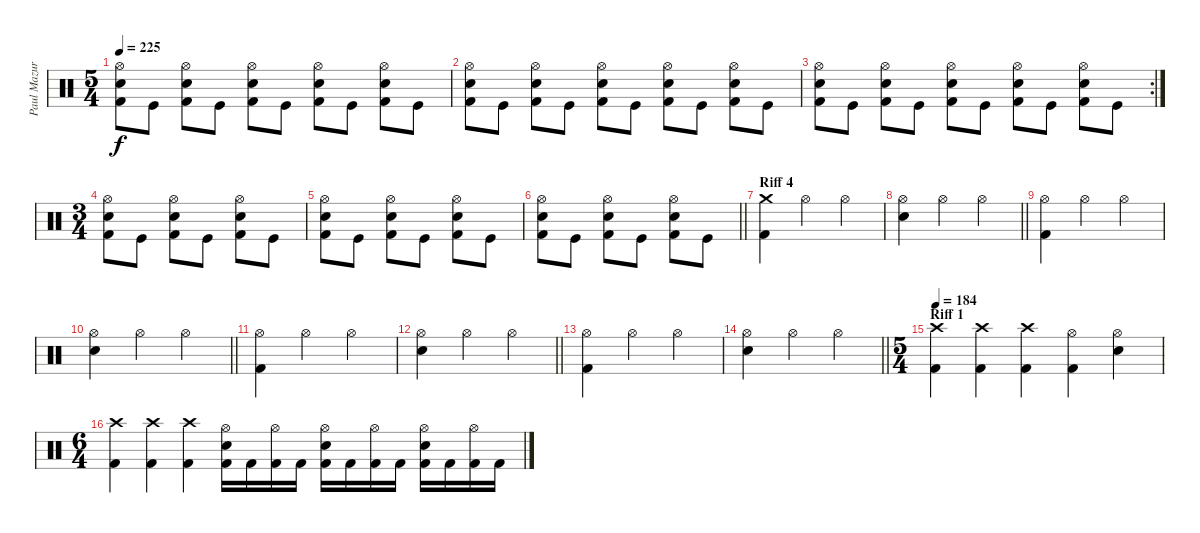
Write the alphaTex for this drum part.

\track ("Paul Mazurkiewicz" "Paul Mazur") {instrument percussion}
\staff {score}
\articulation defaults
\ts (5 4)
\tempo 225
\clef neutral
\ks c
("Hi-Hat (open)" "Electric Snare (hit)" "Kick (hit) 2").8{dy f} "Kick (hit)".8 ("Hi-Hat (open)" "Electric Snare (hit)" "Kick (hit) 2").8 "Kick (hit)".8 ("Hi-Hat (open)" "Electric Snare (hit)" "Kick (hit) 2").8 "Kick (hit)".8 ("Hi-Hat (open)" "Electric Snare (hit)" "Kick (hit) 2").8 "Kick (hit)".8 ("Hi-Hat (open)" "Electric Snare (hit)" "Kick (hit) 2").8 "Kick (hit)".8 |
("Hi-Hat (open)" "Electric Snare (hit)" "Kick (hit) 2").8 "Kick (hit)".8 ("Hi-Hat (open)" "Electric Snare (hit)" "Kick (hit) 2").8 "Kick (hit)".8 ("Hi-Hat (open)" "Electric Snare (hit)" "Kick (hit) 2").8 "Kick (hit)".8 ("Hi-Hat (open)" "Electric Snare (hit)" "Kick (hit) 2").8 "Kick (hit)".8 ("Hi-Hat (open)" "Electric Snare (hit)" "Kick (hit) 2").8 "Kick (hit)".8 |
\rc 2
("Hi-Hat (open)" "Electric Snare (hit)" "Kick (hit) 2").8 "Kick (hit)".8 ("Hi-Hat (open)" "Electric Snare (hit)" "Kick (hit) 2").8 "Kick (hit)".8 ("Hi-Hat (open)" "Electric Snare (hit)" "Kick (hit) 2").8 "Kick (hit)".8 ("Hi-Hat (open)" "Electric Snare (hit)" "Kick (hit) 2").8 "Kick (hit)".8 ("Hi-Hat (open)" "Electric Snare (hit)" "Kick (hit) 2").8 "Kick (hit)".8 |
\ts (3 4)
("Hi-Hat (open)" "Electric Snare (hit)" "Kick (hit) 2").8 "Kick (hit)".8 ("Hi-Hat (open)" "Electric Snare (hit)" "Kick (hit) 2").8 "Kick (hit)".8 ("Hi-Hat (open)" "Electric Snare (hit)" "Kick (hit) 2").8 "Kick (hit)".8 |
("Hi-Hat (open)" "Electric Snare (hit)" "Kick (hit) 2").8 "Kick (hit)".8 ("Hi-Hat (open)" "Electric Snare (hit)" "Kick (hit) 2").8 "Kick (hit)".8 ("Hi-Hat (open)" "Electric Snare (hit)" "Kick (hit) 2").8 "Kick (hit)".8 |
\barLineRight lightlight
("Hi-Hat (open)" "Electric Snare (hit)" "Kick (hit) 2").8 "Kick (hit)".8 ("Hi-Hat (open)" "Electric Snare (hit)" "Kick (hit) 2").8 "Kick (hit)".8 ("Hi-Hat (open)" "Electric Snare (hit)" "Kick (hit) 2").8 "Kick (hit)".8 |
\section ("" "Riff 4")
("Crash medium (hit)" "Kick (hit) 2").4 "Hi-Hat (open)".4 "Hi-Hat (open)".4 |
\barLineRight lightlight
("Hi-Hat (open)" "Electric Snare (hit)").4 "Hi-Hat (open)".4 "Hi-Hat (open)".4 |
("Hi-Hat (open)" "Kick (hit) 2").4 "Hi-Hat (open)".4 "Hi-Hat (open)".4 |
\barLineRight lightlight
("Hi-Hat (open)" "Electric Snare (hit)").4 "Hi-Hat (open)".4 "Hi-Hat (open)".4 |
("Hi-Hat (open)" "Kick (hit) 2").4 "Hi-Hat (open)".4 "Hi-Hat (open)".4 |
\barLineRight lightlight
("Hi-Hat (open)" "Electric Snare (hit)").4 "Hi-Hat (open)".4 "Hi-Hat (open)".4 |
("Hi-Hat (open)" "Kick (hit) 2").4 "Hi-Hat (open)".4 "Hi-Hat (open)".4 |
\barLineRight lightlight
("Hi-Hat (open)" "Electric Snare (hit)").4 "Hi-Hat (open)".4 "Hi-Hat (open)".4 |
\ts (5 4)
\section ("" "Riff 1")
\tempo 184
("Crash high (hit)" "Kick (hit) 2").4 ("Crash high (hit)" "Kick (hit) 2").4 ("Crash high (hit)" "Kick (hit) 2").4 ("Hi-Hat (open)" "Kick (hit) 2").4 ("Hi-Hat (open)" "Electric Snare (hit)").4 |
\ts (6 4)
("Crash high (hit)" "Kick (hit) 2").4 ("Crash high (hit)" "Kick (hit) 2").4 ("Crash high (hit)" "Kick (hit) 2").4 ("Hi-Hat (open)" "Electric Snare (hit)" "Kick (hit) 2").16 "Kick (hit) 2".16 ("Hi-Hat (open)" "Kick (hit) 2").16 "Kick (hit) 2".16 ("Hi-Hat (open)" "Electric Snare (hit)" "Kick (hit) 2").16 "Kick (hit) 2".16 ("Hi-Hat (open)" "Kick (hit) 2").16 "Kick (hit) 2".16 ("Hi-Hat (open)" "Electric Snare (hit)" "Kick (hit) 2").16 "Kick (hit) 2".16 ("Hi-Hat (open)" "Kick (hit) 2").16 "Kick (hit) 2".16
